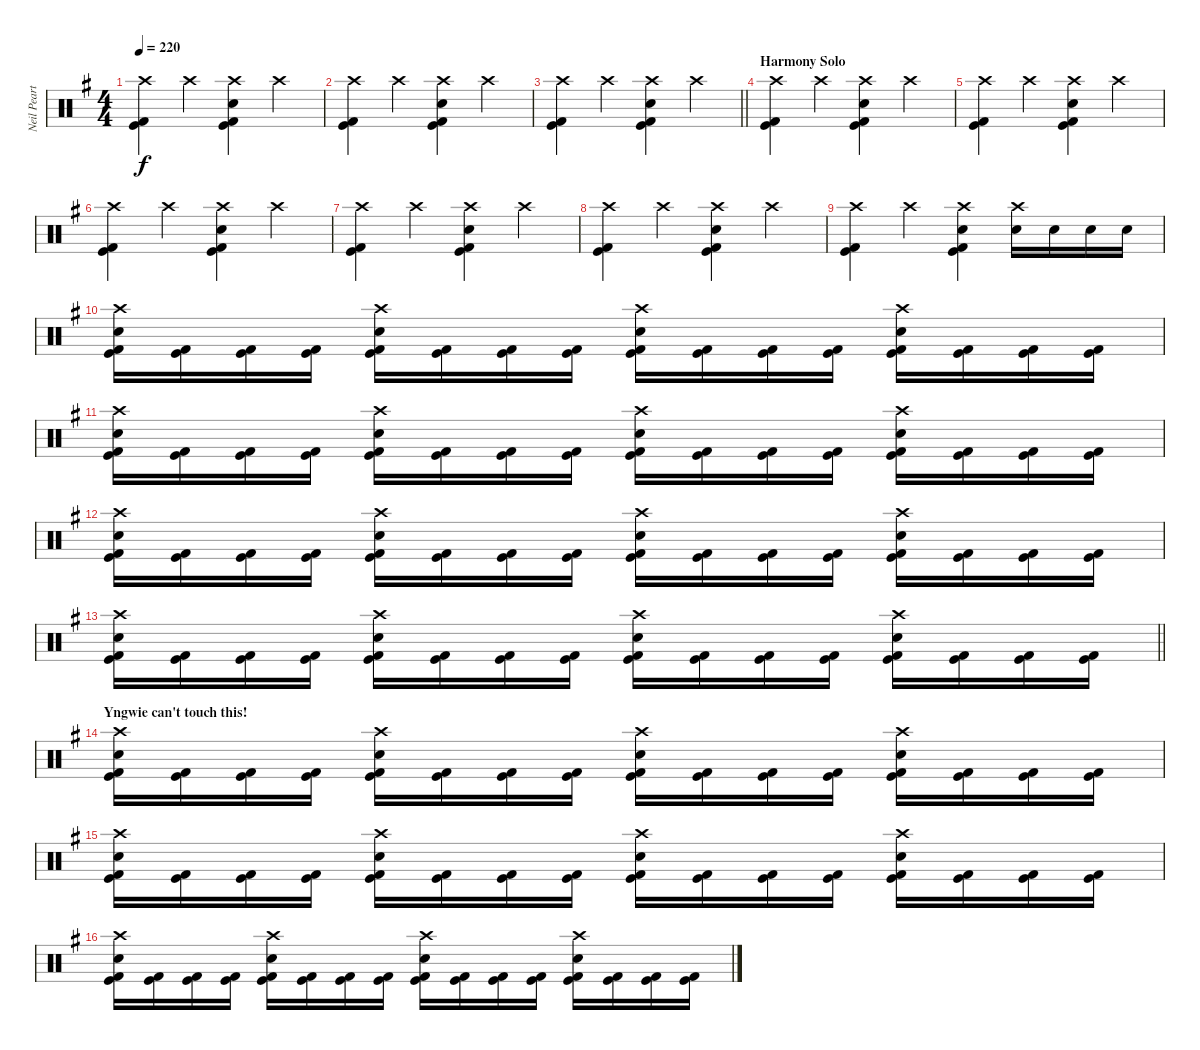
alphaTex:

\track ("Neil Peart" "Neil Peart") {instrument percussion}
\staff {score}
\articulation defaults
\ts (4 4)
\tempo 220
\clef neutral
\ks g
("Crash high (hit)" "Kick (hit)" "Kick (hit) 2").4{dy f} "Crash high (hit)".4 ("Crash high (hit)" "Snare (hit) 2" "Kick (hit)" "Kick (hit) 2").4 "Crash high (hit)".4 |
("Crash high (hit)" "Kick (hit)" "Kick (hit) 2").4 "Crash high (hit)".4 ("Crash high (hit)" "Snare (hit) 2" "Kick (hit)" "Kick (hit) 2").4 "Crash high (hit)".4 |
\barLineRight lightlight
("Crash high (hit)" "Kick (hit)" "Kick (hit) 2").4 "Crash high (hit)".4 ("Crash high (hit)" "Snare (hit) 2" "Kick (hit)" "Kick (hit) 2").4 "Crash high (hit)".4 |
\section ("" "Harmony Solo")
("Crash high (hit)" "Kick (hit)" "Kick (hit) 2").4 "Crash high (hit)".4 ("Crash high (hit)" "Snare (hit) 2" "Kick (hit)" "Kick (hit) 2").4 "Crash high (hit)".4 |
("Crash high (hit)" "Kick (hit)" "Kick (hit) 2").4 "Crash high (hit)".4 ("Crash high (hit)" "Snare (hit) 2" "Kick (hit)" "Kick (hit) 2").4 "Crash high (hit)".4 |
("Crash high (hit)" "Kick (hit)" "Kick (hit) 2").4 "Crash high (hit)".4 ("Crash high (hit)" "Snare (hit) 2" "Kick (hit)" "Kick (hit) 2").4 "Crash high (hit)".4 |
("Crash high (hit)" "Kick (hit)" "Kick (hit) 2").4 "Crash high (hit)".4 ("Crash high (hit)" "Snare (hit) 2" "Kick (hit)" "Kick (hit) 2").4 "Crash high (hit)".4 |
("Crash high (hit)" "Kick (hit)" "Kick (hit) 2").4 "Crash high (hit)".4 ("Crash high (hit)" "Snare (hit) 2" "Kick (hit)" "Kick (hit) 2").4 "Crash high (hit)".4 |
("Crash high (hit)" "Kick (hit)" "Kick (hit) 2").4 "Crash high (hit)".4 ("Crash high (hit)" "Snare (hit) 2" "Kick (hit)" "Kick (hit) 2").4 ("Crash high (hit)" "Snare (hit) 2").16 "Snare (hit) 2".16 "Snare (hit) 2".16 "Snare (hit) 2".16 |
("Crash high (hit)" "Snare (hit) 2" "Kick (hit)" "Kick (hit) 2").16 ("Kick (hit)" "Kick (hit) 2").16 ("Kick (hit)" "Kick (hit) 2").16 ("Kick (hit)" "Kick (hit) 2").16 ("Crash high (hit)" "Snare (hit) 2" "Kick (hit)" "Kick (hit) 2").16 ("Kick (hit)" "Kick (hit) 2").16 ("Kick (hit)" "Kick (hit) 2").16 ("Kick (hit)" "Kick (hit) 2").16 ("Crash high (hit)" "Snare (hit) 2" "Kick (hit)" "Kick (hit) 2").16 ("Kick (hit)" "Kick (hit) 2").16 ("Kick (hit)" "Kick (hit) 2").16 ("Kick (hit)" "Kick (hit) 2").16 ("Crash high (hit)" "Snare (hit) 2" "Kick (hit)" "Kick (hit) 2").16 ("Kick (hit)" "Kick (hit) 2").16 ("Kick (hit)" "Kick (hit) 2").16 ("Kick (hit)" "Kick (hit) 2").16 |
("Crash high (hit)" "Snare (hit) 2" "Kick (hit)" "Kick (hit) 2").16 ("Kick (hit)" "Kick (hit) 2").16 ("Kick (hit)" "Kick (hit) 2").16 ("Kick (hit)" "Kick (hit) 2").16 ("Crash high (hit)" "Snare (hit) 2" "Kick (hit)" "Kick (hit) 2").16 ("Kick (hit)" "Kick (hit) 2").16 ("Kick (hit)" "Kick (hit) 2").16 ("Kick (hit)" "Kick (hit) 2").16 ("Crash high (hit)" "Snare (hit) 2" "Kick (hit)" "Kick (hit) 2").16 ("Kick (hit)" "Kick (hit) 2").16 ("Kick (hit)" "Kick (hit) 2").16 ("Kick (hit)" "Kick (hit) 2").16 ("Crash high (hit)" "Snare (hit) 2" "Kick (hit)" "Kick (hit) 2").16 ("Kick (hit)" "Kick (hit) 2").16 ("Kick (hit)" "Kick (hit) 2").16 ("Kick (hit)" "Kick (hit) 2").16 |
("Crash high (hit)" "Snare (hit) 2" "Kick (hit)" "Kick (hit) 2").16 ("Kick (hit)" "Kick (hit) 2").16 ("Kick (hit)" "Kick (hit) 2").16 ("Kick (hit)" "Kick (hit) 2").16 ("Crash high (hit)" "Snare (hit) 2" "Kick (hit)" "Kick (hit) 2").16 ("Kick (hit)" "Kick (hit) 2").16 ("Kick (hit)" "Kick (hit) 2").16 ("Kick (hit)" "Kick (hit) 2").16 ("Crash high (hit)" "Snare (hit) 2" "Kick (hit)" "Kick (hit) 2").16 ("Kick (hit)" "Kick (hit) 2").16 ("Kick (hit)" "Kick (hit) 2").16 ("Kick (hit)" "Kick (hit) 2").16 ("Crash high (hit)" "Snare (hit) 2" "Kick (hit)" "Kick (hit) 2").16 ("Kick (hit)" "Kick (hit) 2").16 ("Kick (hit)" "Kick (hit) 2").16 ("Kick (hit)" "Kick (hit) 2").16 |
\barLineRight lightlight
("Crash high (hit)" "Snare (hit) 2" "Kick (hit)" "Kick (hit) 2").16 ("Kick (hit)" "Kick (hit) 2").16 ("Kick (hit)" "Kick (hit) 2").16 ("Kick (hit)" "Kick (hit) 2").16 ("Crash high (hit)" "Snare (hit) 2" "Kick (hit)" "Kick (hit) 2").16 ("Kick (hit)" "Kick (hit) 2").16 ("Kick (hit)" "Kick (hit) 2").16 ("Kick (hit)" "Kick (hit) 2").16 ("Crash high (hit)" "Snare (hit) 2" "Kick (hit)" "Kick (hit) 2").16 ("Kick (hit)" "Kick (hit) 2").16 ("Kick (hit)" "Kick (hit) 2").16 ("Kick (hit)" "Kick (hit) 2").16 ("Crash high (hit)" "Snare (hit) 2" "Kick (hit)" "Kick (hit) 2").16 ("Kick (hit)" "Kick (hit) 2").16 ("Kick (hit)" "Kick (hit) 2").16 ("Kick (hit)" "Kick (hit) 2").16 |
\section ("" "Yngwie can't touch this!")
("Crash high (hit)" "Snare (hit) 2" "Kick (hit)" "Kick (hit) 2").16 ("Kick (hit)" "Kick (hit) 2").16 ("Kick (hit)" "Kick (hit) 2").16 ("Kick (hit)" "Kick (hit) 2").16 ("Crash high (hit)" "Snare (hit) 2" "Kick (hit)" "Kick (hit) 2").16 ("Kick (hit)" "Kick (hit) 2").16 ("Kick (hit)" "Kick (hit) 2").16 ("Kick (hit)" "Kick (hit) 2").16 ("Crash high (hit)" "Snare (hit) 2" "Kick (hit)" "Kick (hit) 2").16 ("Kick (hit)" "Kick (hit) 2").16 ("Kick (hit)" "Kick (hit) 2").16 ("Kick (hit)" "Kick (hit) 2").16 ("Crash high (hit)" "Snare (hit) 2" "Kick (hit)" "Kick (hit) 2").16 ("Kick (hit)" "Kick (hit) 2").16 ("Kick (hit)" "Kick (hit) 2").16 ("Kick (hit)" "Kick (hit) 2").16 |
("Crash high (hit)" "Snare (hit) 2" "Kick (hit)" "Kick (hit) 2").16 ("Kick (hit)" "Kick (hit) 2").16 ("Kick (hit)" "Kick (hit) 2").16 ("Kick (hit)" "Kick (hit) 2").16 ("Crash high (hit)" "Snare (hit) 2" "Kick (hit)" "Kick (hit) 2").16 ("Kick (hit)" "Kick (hit) 2").16 ("Kick (hit)" "Kick (hit) 2").16 ("Kick (hit)" "Kick (hit) 2").16 ("Crash high (hit)" "Snare (hit) 2" "Kick (hit)" "Kick (hit) 2").16 ("Kick (hit)" "Kick (hit) 2").16 ("Kick (hit)" "Kick (hit) 2").16 ("Kick (hit)" "Kick (hit) 2").16 ("Crash high (hit)" "Snare (hit) 2" "Kick (hit)" "Kick (hit) 2").16 ("Kick (hit)" "Kick (hit) 2").16 ("Kick (hit)" "Kick (hit) 2").16 ("Kick (hit)" "Kick (hit) 2").16 |
("Crash high (hit)" "Snare (hit) 2" "Kick (hit)" "Kick (hit) 2").16 ("Kick (hit)" "Kick (hit) 2").16 ("Kick (hit)" "Kick (hit) 2").16 ("Kick (hit)" "Kick (hit) 2").16 ("Crash high (hit)" "Snare (hit) 2" "Kick (hit)" "Kick (hit) 2").16 ("Kick (hit)" "Kick (hit) 2").16 ("Kick (hit)" "Kick (hit) 2").16 ("Kick (hit)" "Kick (hit) 2").16 ("Crash high (hit)" "Snare (hit) 2" "Kick (hit)" "Kick (hit) 2").16 ("Kick (hit)" "Kick (hit) 2").16 ("Kick (hit)" "Kick (hit) 2").16 ("Kick (hit)" "Kick (hit) 2").16 ("Crash high (hit)" "Snare (hit) 2" "Kick (hit)" "Kick (hit) 2").16 ("Kick (hit)" "Kick (hit) 2").16 ("Kick (hit)" "Kick (hit) 2").16 ("Kick (hit)" "Kick (hit) 2").16
